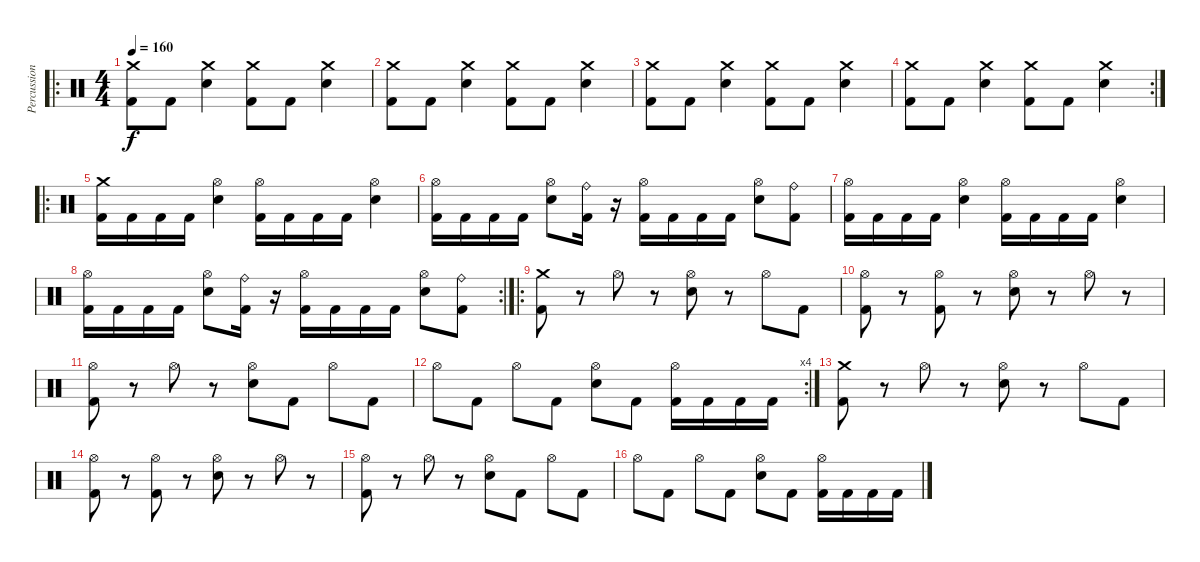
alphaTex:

\track ("Percussion" "Percussion") {instrument percussion}
\staff {score}
\articulation defaults
\ro
\ts (4 4)
\tempo 160
\clef neutral
\ks c
("Kick (hit) 2" "Crash medium (hit)").8{dy f} "Kick (hit) 2".8 ("Crash medium (hit)" "Electric Snare (hit)").4 ("Kick (hit) 2" "Crash medium (hit)").8 "Kick (hit) 2".8 ("Crash medium (hit)" "Electric Snare (hit)").4 |
("Kick (hit) 2" "Crash medium (hit)").8 "Kick (hit) 2".8 ("Crash medium (hit)" "Electric Snare (hit)").4 ("Kick (hit) 2" "Crash medium (hit)").8 "Kick (hit) 2".8 ("Crash medium (hit)" "Electric Snare (hit)").4 |
("Kick (hit) 2" "Crash medium (hit)").8 "Kick (hit) 2".8 ("Crash medium (hit)" "Electric Snare (hit)").4 ("Kick (hit) 2" "Crash medium (hit)").8 "Kick (hit) 2".8 ("Crash medium (hit)" "Electric Snare (hit)").4 |
\rc 2
("Kick (hit) 2" "Crash medium (hit)").8 "Kick (hit) 2".8 ("Crash medium (hit)" "Electric Snare (hit)").4 ("Kick (hit) 2" "Crash medium (hit)").8 "Kick (hit) 2".8 ("Crash medium (hit)" "Electric Snare (hit)").4 |
\ro
("Crash medium (hit)" "Kick (hit) 2").16 "Kick (hit) 2".16 "Kick (hit) 2".16 "Kick (hit) 2".16 ("Hi-Hat (open)" "Electric Snare (hit)").4 ("Hi-Hat (open)" "Kick (hit) 2").16 "Kick (hit) 2".16 "Kick (hit) 2".16 "Kick (hit) 2".16 ("Hi-Hat (open)" "Electric Snare (hit)").4 |
("Hi-Hat (open)" "Kick (hit) 2").16 "Kick (hit) 2".16 "Kick (hit) 2".16 "Kick (hit) 2".16 ("Hi-Hat (open)" "Electric Snare (hit)").8 ("Ride (bell)" "Kick (hit) 2").16 r.16 ("Hi-Hat (open)" "Kick (hit) 2").16 "Kick (hit) 2".16 "Kick (hit) 2".16 "Kick (hit) 2".16 ("Hi-Hat (open)" "Electric Snare (hit)").8 ("Ride (bell)" "Kick (hit) 2").8 |
("Hi-Hat (open)" "Kick (hit) 2").16 "Kick (hit) 2".16 "Kick (hit) 2".16 "Kick (hit) 2".16 ("Hi-Hat (open)" "Electric Snare (hit)").4 ("Hi-Hat (open)" "Kick (hit) 2").16 "Kick (hit) 2".16 "Kick (hit) 2".16 "Kick (hit) 2".16 ("Hi-Hat (open)" "Electric Snare (hit)").4 |
\rc 2
("Hi-Hat (open)" "Kick (hit) 2").16 "Kick (hit) 2".16 "Kick (hit) 2".16 "Kick (hit) 2".16 ("Hi-Hat (open)" "Electric Snare (hit)").8 ("Ride (bell)" "Kick (hit) 2").16 r.16 ("Hi-Hat (open)" "Kick (hit) 2").16 "Kick (hit) 2".16 "Kick (hit) 2".16 "Kick (hit) 2".16 ("Hi-Hat (open)" "Electric Snare (hit)").8 ("Ride (bell)" "Kick (hit) 2").8 |
\ro
("Crash medium (hit)" "Kick (hit) 2").8 r.8 "Hi-Hat (open)".8 r.8 ("Hi-Hat (open)" "Electric Snare (hit)").8 r.8 "Hi-Hat (open)".8 "Kick (hit) 2".8 |
("Hi-Hat (open)" "Kick (hit) 2").8 r.8 ("Hi-Hat (open)" "Kick (hit) 2").8 r.8 ("Hi-Hat (open)" "Electric Snare (hit)").8 r.8 "Hi-Hat (open)".8 r.8 |
("Hi-Hat (open)" "Kick (hit) 2").8 r.8 "Hi-Hat (open)".8 r.8 ("Hi-Hat (open)" "Electric Snare (hit)").8 "Kick (hit) 2".8 "Hi-Hat (open)".8 "Kick (hit) 2".8 |
\rc 4 "Hi-Hat (open)".8 "Kick (hit) 2".8 "Hi-Hat (open)".8 "Kick (hit) 2".8
("Hi-Hat (open)" "Electric Snare (hit)").8 "Kick (hit) 2".8 ("Hi-Hat (open)" "Kick (hit) 2").16 "Kick (hit) 2".16 "Kick (hit) 2".16 "Kick (hit) 2".16 |
("Crash medium (hit)" "Kick (hit) 2").8{volume 7} r.8 "Hi-Hat (open)".8 r.8 ("Hi-Hat (open)" "Electric Snare (hit)").8 r.8 "Hi-Hat (open)".8 "Kick (hit) 2".8 |
("Hi-Hat (open)" "Kick (hit) 2").8 r.8 ("Hi-Hat (open)" "Kick (hit) 2").8 r.8 ("Hi-Hat (open)" "Electric Snare (hit)").8 r.8 "Hi-Hat (open)".8 r.8 |
("Hi-Hat (open)" "Kick (hit) 2").8 r.8 "Hi-Hat (open)".8 r.8 ("Hi-Hat (open)" "Electric Snare (hit)").8 "Kick (hit) 2".8 "Hi-Hat (open)".8 "Kick (hit) 2".8 |
"Hi-Hat (open)".8 "Kick (hit) 2".8 "Hi-Hat (open)".8 "Kick (hit) 2".8 ("Hi-Hat (open)" "Electric Snare (hit)").8 "Kick (hit) 2".8 ("Hi-Hat (open)" "Kick (hit) 2").16 "Kick (hit) 2".16 "Kick (hit) 2".16 "Kick (hit) 2".16
